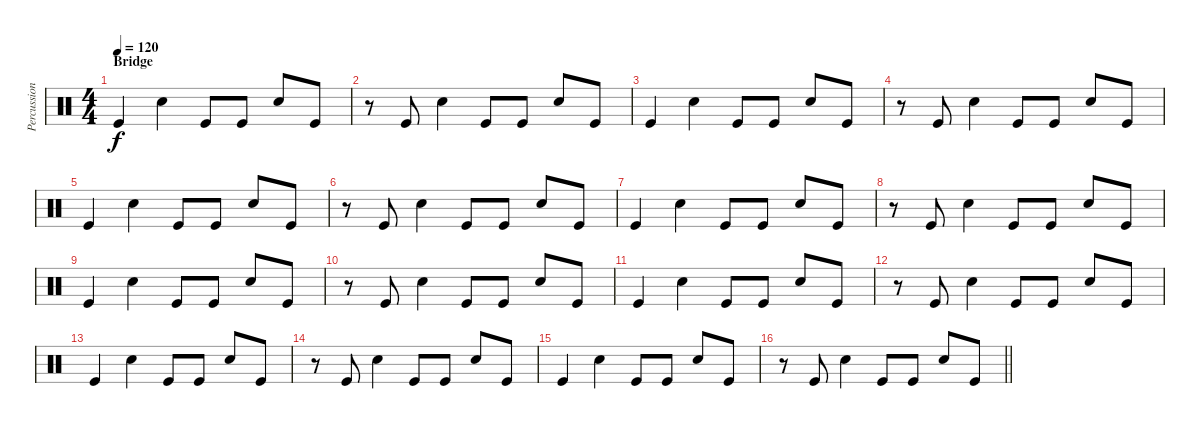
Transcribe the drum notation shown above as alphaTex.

\track ("Percussion" "Percussion") {instrument percussion}
\staff {score}
\articulation defaults
\ts (4 4)
\section ("" "Bridge")
\tempo 120
\clef neutral
\ks c "Kick (hit)".4{dy f} "Snare (hit) 2".4 "Kick (hit)".8 "Kick (hit)".8 "Snare (hit) 2".8 "Kick (hit)".8
|
r.8 "Kick (hit)".8 "Snare (hit) 2".4 "Kick (hit)".8 "Kick (hit)".8 "Snare (hit) 2".8 "Kick (hit)".8 |
"Kick (hit)".4 "Snare (hit) 2".4 "Kick (hit)".8 "Kick (hit)".8 "Snare (hit) 2".8 "Kick (hit)".8 |
r.8 "Kick (hit)".8 "Snare (hit) 2".4 "Kick (hit)".8 "Kick (hit)".8 "Snare (hit) 2".8 "Kick (hit)".8 |
"Kick (hit)".4 "Snare (hit) 2".4 "Kick (hit)".8 "Kick (hit)".8 "Snare (hit) 2".8 "Kick (hit)".8 |
r.8 "Kick (hit)".8 "Snare (hit) 2".4 "Kick (hit)".8 "Kick (hit)".8 "Snare (hit) 2".8 "Kick (hit)".8 |
"Kick (hit)".4 "Snare (hit) 2".4 "Kick (hit)".8 "Kick (hit)".8 "Snare (hit) 2".8 "Kick (hit)".8 |
r.8 "Kick (hit)".8 "Snare (hit) 2".4 "Kick (hit)".8 "Kick (hit)".8 "Snare (hit) 2".8 "Kick (hit)".8 |
"Kick (hit)".4 "Snare (hit) 2".4 "Kick (hit)".8 "Kick (hit)".8 "Snare (hit) 2".8 "Kick (hit)".8 |
r.8 "Kick (hit)".8 "Snare (hit) 2".4 "Kick (hit)".8 "Kick (hit)".8 "Snare (hit) 2".8 "Kick (hit)".8 |
"Kick (hit)".4 "Snare (hit) 2".4 "Kick (hit)".8 "Kick (hit)".8 "Snare (hit) 2".8 "Kick (hit)".8 |
r.8 "Kick (hit)".8 "Snare (hit) 2".4 "Kick (hit)".8 "Kick (hit)".8 "Snare (hit) 2".8 "Kick (hit)".8 |
"Kick (hit)".4 "Snare (hit) 2".4 "Kick (hit)".8 "Kick (hit)".8 "Snare (hit) 2".8 "Kick (hit)".8 |
r.8 "Kick (hit)".8 "Snare (hit) 2".4 "Kick (hit)".8 "Kick (hit)".8 "Snare (hit) 2".8 "Kick (hit)".8 |
"Kick (hit)".4 "Snare (hit) 2".4 "Kick (hit)".8 "Kick (hit)".8 "Snare (hit) 2".8 "Kick (hit)".8 |
\barLineRight lightlight
r.8 "Kick (hit)".8 "Snare (hit) 2".4 "Kick (hit)".8 "Kick (hit)".8 "Snare (hit) 2".8 "Kick (hit)".8
